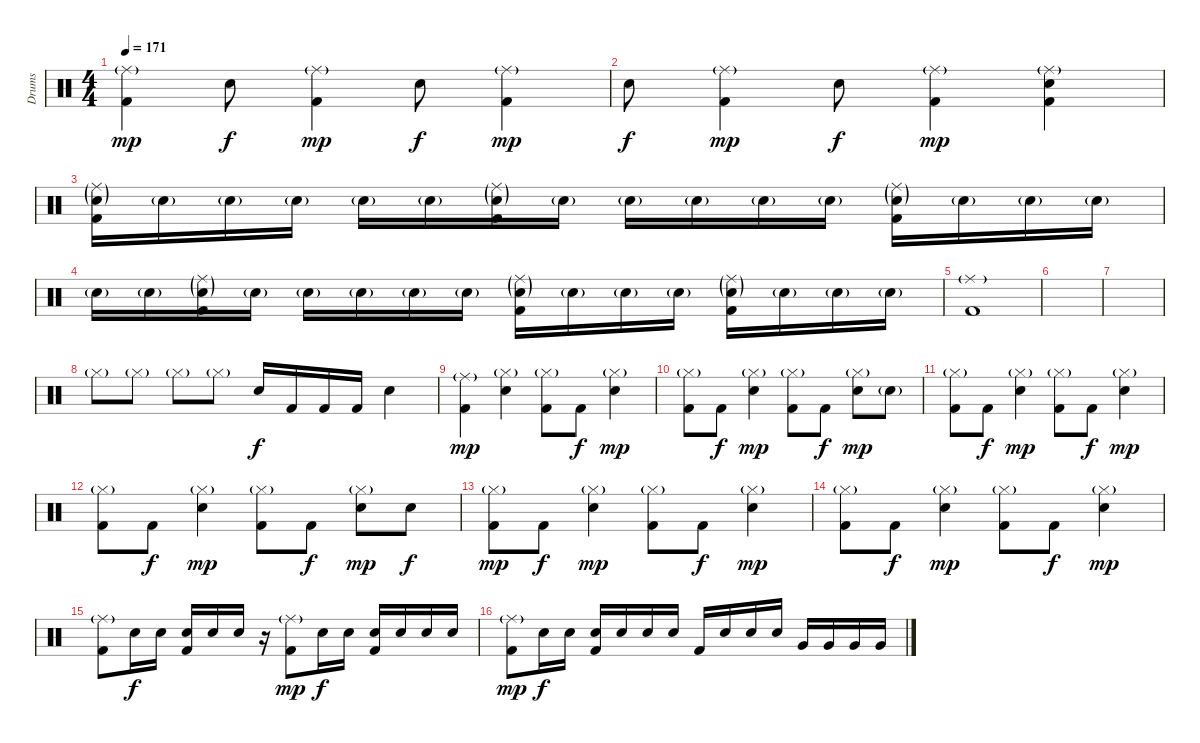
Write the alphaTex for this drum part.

\track ("Drums" "Drums") {instrument percussion}
\staff {score}
\articulation defaults
\ts (4 4)
\tempo 171
\clef neutral
\ks c
("Ride (middle)"{g} "Kick (hit) 2").4{dy mp} "Electric Snare (hit)".8{dy f} ("Ride (middle)"{g} "Kick (hit) 2").4{dy mp} "Electric Snare (hit)".8{dy f} ("Ride (middle)"{g} "Kick (hit) 2").4{dy mp} |
"Electric Snare (hit)".8{dy f} ("Ride (middle)"{g} "Kick (hit) 2").4{dy mp} "Electric Snare (hit)".8{dy f} ("Ride (middle)"{g} "Kick (hit) 2").4{dy mp} ("Ride (middle)"{g} "Electric Snare (hit)" "Kick (hit) 2").4 |
("Ride (middle)"{g} "Electric Snare (hit)"{g} "Kick (hit) 2").16 "Electric Snare (hit)"{g}.16 "Electric Snare (hit)"{g}.16 "Electric Snare (hit)"{g}.16 "Electric Snare (hit)"{g}.16 "Electric Snare (hit)"{g}.16 ("Ride (middle)"{g} "Electric Snare (hit)"{g} "Kick (hit) 2").16 "Electric Snare (hit)"{g}.16 "Electric Snare (hit)"{g}.16 "Electric Snare (hit)"{g}.16 "Electric Snare (hit)"{g}.16 "Electric Snare (hit)"{g}.16 ("Ride (middle)"{g} "Electric Snare (hit)"{g} "Kick (hit) 2").16 "Electric Snare (hit)"{g}.16 "Electric Snare (hit)"{g}.16 "Electric Snare (hit)"{g}.16 |
"Electric Snare (hit)"{g}.16 "Electric Snare (hit)"{g}.16 ("Ride (middle)"{g} "Electric Snare (hit)"{g} "Kick (hit) 2").16 "Electric Snare (hit)"{g}.16 "Electric Snare (hit)"{g}.16 "Electric Snare (hit)"{g}.16 "Electric Snare (hit)"{g}.16 "Electric Snare (hit)"{g}.16 ("Ride (middle)"{g} "Electric Snare (hit)"{g} "Kick (hit) 2").16 "Electric Snare (hit)"{g}.16 "Electric Snare (hit)"{g}.16 "Electric Snare (hit)"{g}.16 ("Ride (middle)"{g} "Electric Snare (hit)"{g} "Kick (hit) 2").16 "Electric Snare (hit)"{g}.16 "Electric Snare (hit)"{g}.16 "Electric Snare (hit)"{g}.16 |
("Ride (middle)"{g} "Kick (hit) 2").1 |
|
|
"Hi-Hat (closed)"{g}.8 "Hi-Hat (closed)"{g}.8 "Hi-Hat (closed)"{g}.8 "Hi-Hat (closed)"{g}.8 "Electric Snare (hit)".16{dy f} "Kick (hit) 2".16 "Kick (hit) 2".16 "Kick (hit) 2".16 "Electric Snare (hit)".4 |
("Ride (middle)"{g} "Kick (hit) 2").4{dy mp} ("Hi-Hat (closed)"{g} "Electric Snare (hit)").4 ("Hi-Hat (closed)"{g} "Kick (hit) 2").8 "Kick (hit) 2".8{dy f} ("Hi-Hat (closed)"{g} "Electric Snare (hit)").4{dy mp} |
("Hi-Hat (closed)"{g} "Kick (hit) 2").8 "Kick (hit) 2".8{dy f} ("Hi-Hat (closed)"{g} "Electric Snare (hit)").4{dy mp} ("Hi-Hat (closed)"{g} "Kick (hit) 2").8 "Kick (hit) 2".8{dy f} ("Hi-Hat (closed)"{g} "Electric Snare (hit)").8{dy mp} "Electric Snare (hit)"{g}.8 |
("Hi-Hat (closed)"{g} "Kick (hit) 2").8 "Kick (hit) 2".8{dy f} ("Hi-Hat (closed)"{g} "Electric Snare (hit)").4{dy mp} ("Hi-Hat (closed)"{g} "Kick (hit) 2").8 "Kick (hit) 2".8{dy f} ("Hi-Hat (closed)"{g} "Electric Snare (hit)").4{dy mp} |
("Hi-Hat (closed)"{g} "Kick (hit) 2").8 "Kick (hit) 2".8{dy f} ("Hi-Hat (closed)"{g} "Electric Snare (hit)").4{dy mp} ("Hi-Hat (closed)"{g} "Kick (hit) 2").8 "Kick (hit) 2".8{dy f} ("Hi-Hat (closed)"{g} "Electric Snare (hit)").8{dy mp} "Electric Snare (hit)".8{dy f} |
("Hi-Hat (closed)"{g} "Kick (hit) 2").8{dy mp} "Kick (hit) 2".8{dy f} ("Hi-Hat (closed)"{g} "Electric Snare (hit)").4{dy mp} ("Hi-Hat (closed)"{g} "Kick (hit) 2").8 "Kick (hit) 2".8{dy f} ("Hi-Hat (closed)"{g} "Electric Snare (hit)").4{dy mp} |
("Hi-Hat (closed)"{g} "Kick (hit) 2").8 "Kick (hit) 2".8{dy f} ("Hi-Hat (closed)"{g} "Electric Snare (hit)").4{dy mp} ("Hi-Hat (closed)"{g} "Kick (hit) 2").8 "Kick (hit) 2".8{dy f} ("Hi-Hat (closed)"{g} "Electric Snare (hit)").4{dy mp} |
("Ride (middle)"{g} "Kick (hit) 2").8 "Electric Snare (hit)".16{dy f} "Electric Snare (hit)".16 ("Electric Snare (hit)" "Kick (hit) 2").16 "Electric Snare (hit)".16 "Electric Snare (hit)".16 r.16 ("Ride (middle)"{g} "Kick (hit) 2").8{dy mp} "Electric Snare (hit)".16{dy f} "Electric Snare (hit)".16 ("Electric Snare (hit)" "Kick (hit) 2").16 "Electric Snare (hit)".16 "Electric Snare (hit)".16 "Electric Snare (hit)".16 |
("Ride (middle)"{g} "Kick (hit) 2").8{dy mp} "Electric Snare (hit)".16{dy f} "Electric Snare (hit)".16 ("Electric Snare (hit)" "Kick (hit) 2").16 "Electric Snare (hit)".16 "Electric Snare (hit)".16 "Electric Snare (hit)".16 "Kick (hit) 2".16 "Electric Snare (hit)".16 "Electric Snare (hit)".16 "Electric Snare (hit)".16 "Very Low Tom (hit)".16 "Very Low Tom (hit)".16 "Very Low Tom (hit)".16 "Very Low Tom (hit)".16
